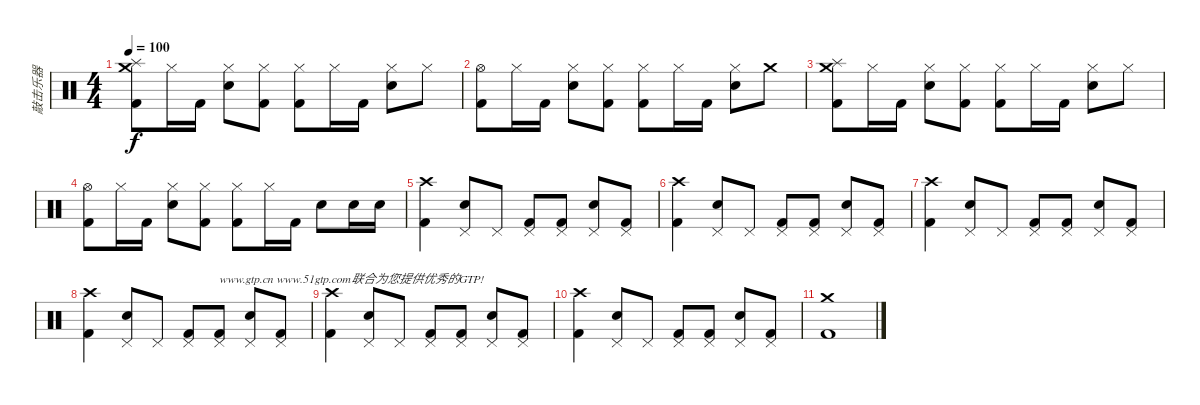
\track ("敲击乐器" "敲击乐器") {instrument percussion}
\staff {score}
\articulation defaults
\ts (4 4)
\tempo 100
\clef neutral
\ks c
("Splash (hit)" "Crash medium (hit)" "Kick (hit) 2").8{dy f} "Hi-Hat (closed)".16 "Kick (hit) 2".16 ("Hi-Hat (closed)" "Electric Snare (hit)").8 ("Hi-Hat (closed)" "Kick (hit) 2").8 ("Hi-Hat (closed)" "Kick (hit) 2").8 "Hi-Hat (closed)".16 "Kick (hit) 2".16 ("Hi-Hat (closed)" "Electric Snare (hit)").8 "Hi-Hat (closed)".8 |
("Hi-Hat (open)" "Kick (hit) 2").8 "Hi-Hat (closed)".16 "Kick (hit) 2".16 ("Hi-Hat (closed)" "Electric Snare (hit)").8 ("Hi-Hat (closed)" "Kick (hit) 2").8 ("Hi-Hat (closed)" "Kick (hit) 2").8 "Hi-Hat (closed)".16 "Kick (hit) 2".16 ("Hi-Hat (closed)" "Electric Snare (hit)").8 "Crash medium (hit)".8 |
("Splash (hit)" "Crash medium (hit)" "Kick (hit) 2").8 "Hi-Hat (closed)".16 "Kick (hit) 2".16 ("Hi-Hat (closed)" "Electric Snare (hit)").8 ("Hi-Hat (closed)" "Kick (hit) 2").8 ("Hi-Hat (closed)" "Kick (hit) 2").8 "Hi-Hat (closed)".16 "Kick (hit) 2".16 ("Hi-Hat (closed)" "Electric Snare (hit)").8 "Hi-Hat (closed)".8 |
("Hi-Hat (open)" "Kick (hit) 2").8 "Hi-Hat (closed)".16 "Kick (hit) 2".16 ("Hi-Hat (closed)" "Electric Snare (hit)").8 ("Hi-Hat (closed)" "Kick (hit) 2").8 ("Hi-Hat (closed)" "Kick (hit) 2").8 "Hi-Hat (closed)".16 "Kick (hit) 2".16 "Electric Snare (hit)".8 "Electric Snare (hit)".16 "Electric Snare (hit)".16 |
("Crash high (hit)" "Kick (hit) 2").4 ("Pedal Hi-Hat (hit)" "Snare (hit) 2").8 "Pedal Hi-Hat (hit)".8 ("Pedal Hi-Hat (hit)" "Kick (hit) 2").8 ("Pedal Hi-Hat (hit)" "Kick (hit) 2").8 ("Pedal Hi-Hat (hit)" "Snare (hit) 2").8 ("Pedal Hi-Hat (hit)" "Kick (hit) 2").8 |
("Crash high (hit)" "Kick (hit) 2").4 ("Pedal Hi-Hat (hit)" "Snare (hit) 2").8 "Pedal Hi-Hat (hit)".8 ("Pedal Hi-Hat (hit)" "Kick (hit) 2").8 ("Pedal Hi-Hat (hit)" "Kick (hit) 2").8 ("Pedal Hi-Hat (hit)" "Snare (hit) 2").8 ("Pedal Hi-Hat (hit)" "Kick (hit) 2").8 |
("Crash high (hit)" "Kick (hit) 2").4 ("Pedal Hi-Hat (hit)" "Snare (hit) 2").8 "Pedal Hi-Hat (hit)".8 ("Pedal Hi-Hat (hit)" "Kick (hit) 2").8 ("Pedal Hi-Hat (hit)" "Kick (hit) 2").8 ("Pedal Hi-Hat (hit)" "Snare (hit) 2").8 ("Pedal Hi-Hat (hit)" "Kick (hit) 2").8 |
("Crash high (hit)" "Kick (hit) 2").4 ("Pedal Hi-Hat (hit)" "Snare (hit) 2").8 "Pedal Hi-Hat (hit)".8 ("Pedal Hi-Hat (hit)" "Kick (hit) 2").8 ("Pedal Hi-Hat (hit)" "Kick (hit) 2").8{txt "www.gtp.cn www.51gtp.com联合为您提供优秀的GTP!"} ("Pedal Hi-Hat (hit)" "Snare (hit) 2").8 ("Pedal Hi-Hat (hit)" "Kick (hit) 2").8 |
("Crash high (hit)" "Kick (hit) 2").4 ("Pedal Hi-Hat (hit)" "Snare (hit) 2").8 "Pedal Hi-Hat (hit)".8 ("Pedal Hi-Hat (hit)" "Kick (hit) 2").8 ("Pedal Hi-Hat (hit)" "Kick (hit) 2").8 ("Pedal Hi-Hat (hit)" "Snare (hit) 2").8 ("Pedal Hi-Hat (hit)" "Kick (hit) 2").8 |
("Crash high (hit)" "Kick (hit) 2").4 ("Pedal Hi-Hat (hit)" "Snare (hit) 2").8 "Pedal Hi-Hat (hit)".8 ("Pedal Hi-Hat (hit)" "Kick (hit) 2").8 ("Pedal Hi-Hat (hit)" "Kick (hit) 2").8 ("Pedal Hi-Hat (hit)" "Snare (hit) 2").8 ("Pedal Hi-Hat (hit)" "Kick (hit) 2").8 |
("Crash medium (hit)" "Kick (hit) 2").1{volume 14}
